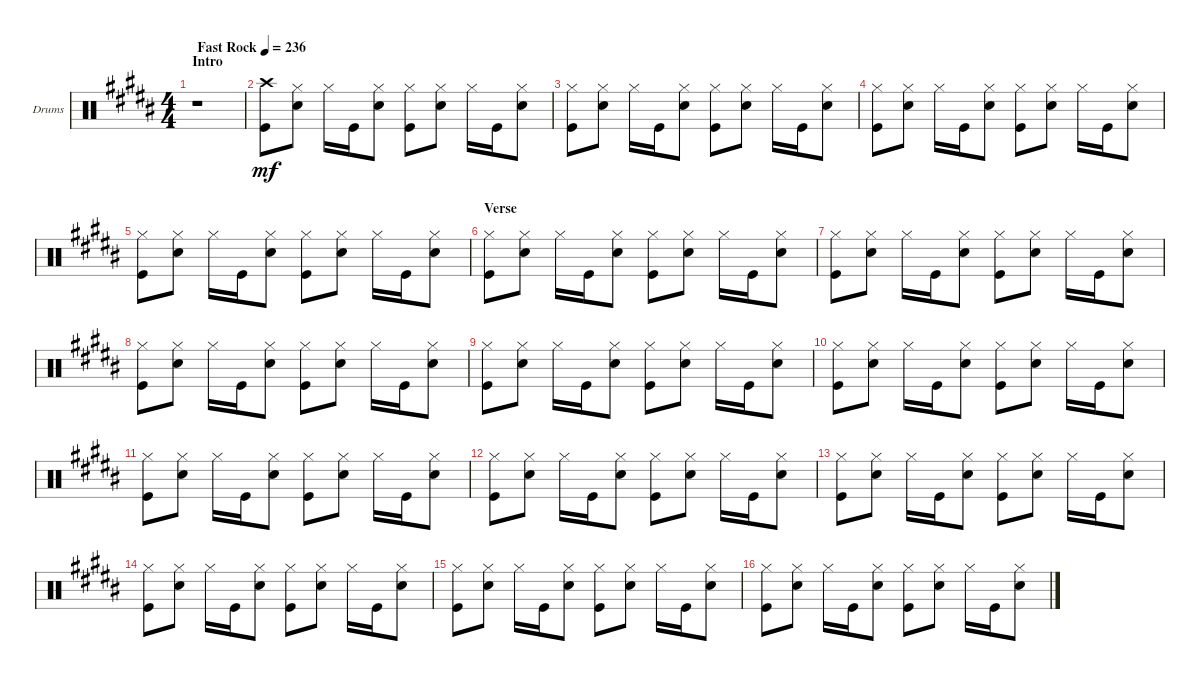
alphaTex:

\defaultSystemsLayout 4
\bracketExtendMode groupsimilarinstruments
\firstSystemTrackNameOrientation horizontal
\otherSystemsTrackNameOrientation horizontal
\track ("Drums" "Drums") {instrument percussion}
\staff {score}
\articulation defaults
\ts (4 4)
\section ("" "Intro")
\tempo (236 "Fast Rock")
\clef neutral
\ks b
r.1{dy mf} |
("Kick (hit)" "Crash high (hit)").8 ("Hi-Hat (closed)" "Snare (hit) 2").8 "Hi-Hat (closed)".16 "Kick (hit)".16 ("Hi-Hat (closed)" "Snare (hit) 2").8 ("Hi-Hat (closed)" "Kick (hit)").8 ("Hi-Hat (closed)" "Snare (hit) 2").8 "Hi-Hat (closed)".16 "Kick (hit)".16 ("Hi-Hat (closed)" "Snare (hit) 2").8 |
("Hi-Hat (closed)" "Kick (hit)").8 ("Hi-Hat (closed)" "Snare (hit) 2").8 "Hi-Hat (closed)".16 "Kick (hit)".16 ("Hi-Hat (closed)" "Snare (hit) 2").8 ("Hi-Hat (closed)" "Kick (hit)").8 ("Hi-Hat (closed)" "Snare (hit) 2").8 "Hi-Hat (closed)".16 "Kick (hit)".16 ("Hi-Hat (closed)" "Snare (hit) 2").8 |
("Hi-Hat (closed)" "Kick (hit)").8 ("Hi-Hat (closed)" "Snare (hit) 2").8 "Hi-Hat (closed)".16 "Kick (hit)".16 ("Hi-Hat (closed)" "Snare (hit) 2").8 ("Hi-Hat (closed)" "Kick (hit)").8 ("Hi-Hat (closed)" "Snare (hit) 2").8 "Hi-Hat (closed)".16 "Kick (hit)".16 ("Hi-Hat (closed)" "Snare (hit) 2").8 |
("Hi-Hat (closed)" "Kick (hit)").8 ("Hi-Hat (closed)" "Snare (hit) 2").8 "Hi-Hat (closed)".16 "Kick (hit)".16 ("Hi-Hat (closed)" "Snare (hit) 2").8 ("Hi-Hat (closed)" "Kick (hit)").8 ("Hi-Hat (closed)" "Snare (hit) 2").8 "Hi-Hat (closed)".16 "Kick (hit)".16 ("Hi-Hat (closed)" "Snare (hit) 2").8 |
\section ("" "Verse")
("Kick (hit)" "Hi-Hat (closed)").8 ("Hi-Hat (closed)" "Snare (hit) 2").8 "Hi-Hat (closed)".16 "Kick (hit)".16 ("Hi-Hat (closed)" "Snare (hit) 2").8 ("Hi-Hat (closed)" "Kick (hit)").8 ("Hi-Hat (closed)" "Snare (hit) 2").8 "Hi-Hat (closed)".16 "Kick (hit)".16 ("Hi-Hat (closed)" "Snare (hit) 2").8 |
("Hi-Hat (closed)" "Kick (hit)").8 ("Hi-Hat (closed)" "Snare (hit) 2").8 "Hi-Hat (closed)".16 "Kick (hit)".16 ("Hi-Hat (closed)" "Snare (hit) 2").8 ("Hi-Hat (closed)" "Kick (hit)").8 ("Hi-Hat (closed)" "Snare (hit) 2").8 "Hi-Hat (closed)".16 "Kick (hit)".16 ("Hi-Hat (closed)" "Snare (hit) 2").8 |
("Hi-Hat (closed)" "Kick (hit)").8 ("Hi-Hat (closed)" "Snare (hit) 2").8 "Hi-Hat (closed)".16 "Kick (hit)".16 ("Hi-Hat (closed)" "Snare (hit) 2").8 ("Hi-Hat (closed)" "Kick (hit)").8 ("Hi-Hat (closed)" "Snare (hit) 2").8 "Hi-Hat (closed)".16 "Kick (hit)".16 ("Hi-Hat (closed)" "Snare (hit) 2").8 |
("Hi-Hat (closed)" "Kick (hit)").8 ("Hi-Hat (closed)" "Snare (hit) 2").8 "Hi-Hat (closed)".16 "Kick (hit)".16 ("Hi-Hat (closed)" "Snare (hit) 2").8 ("Hi-Hat (closed)" "Kick (hit)").8 ("Hi-Hat (closed)" "Snare (hit) 2").8 "Hi-Hat (closed)".16 "Kick (hit)".16 ("Hi-Hat (closed)" "Snare (hit) 2").8 |
("Kick (hit)" "Hi-Hat (closed)").8 ("Hi-Hat (closed)" "Snare (hit) 2").8 "Hi-Hat (closed)".16 "Kick (hit)".16 ("Hi-Hat (closed)" "Snare (hit) 2").8 ("Hi-Hat (closed)" "Kick (hit)").8 ("Hi-Hat (closed)" "Snare (hit) 2").8 "Hi-Hat (closed)".16 "Kick (hit)".16 ("Hi-Hat (closed)" "Snare (hit) 2").8 |
("Hi-Hat (closed)" "Kick (hit)").8 ("Hi-Hat (closed)" "Snare (hit) 2").8 "Hi-Hat (closed)".16 "Kick (hit)".16 ("Hi-Hat (closed)" "Snare (hit) 2").8 ("Hi-Hat (closed)" "Kick (hit)").8 ("Hi-Hat (closed)" "Snare (hit) 2").8 "Hi-Hat (closed)".16 "Kick (hit)".16 ("Hi-Hat (closed)" "Snare (hit) 2").8 |
("Hi-Hat (closed)" "Kick (hit)").8 ("Hi-Hat (closed)" "Snare (hit) 2").8 "Hi-Hat (closed)".16 "Kick (hit)".16 ("Hi-Hat (closed)" "Snare (hit) 2").8 ("Hi-Hat (closed)" "Kick (hit)").8 ("Hi-Hat (closed)" "Snare (hit) 2").8 "Hi-Hat (closed)".16 "Kick (hit)".16 ("Hi-Hat (closed)" "Snare (hit) 2").8 |
("Hi-Hat (closed)" "Kick (hit)").8 ("Hi-Hat (closed)" "Snare (hit) 2").8 "Hi-Hat (closed)".16 "Kick (hit)".16 ("Hi-Hat (closed)" "Snare (hit) 2").8 ("Hi-Hat (closed)" "Kick (hit)").8 ("Hi-Hat (closed)" "Snare (hit) 2").8 "Hi-Hat (closed)".16 "Kick (hit)".16 ("Hi-Hat (closed)" "Snare (hit) 2").8 |
("Kick (hit)" "Hi-Hat (closed)").8 ("Hi-Hat (closed)" "Snare (hit) 2").8 "Hi-Hat (closed)".16 "Kick (hit)".16 ("Hi-Hat (closed)" "Snare (hit) 2").8 ("Hi-Hat (closed)" "Kick (hit)").8 ("Hi-Hat (closed)" "Snare (hit) 2").8 "Hi-Hat (closed)".16 "Kick (hit)".16 ("Hi-Hat (closed)" "Snare (hit) 2").8 |
("Hi-Hat (closed)" "Kick (hit)").8 ("Hi-Hat (closed)" "Snare (hit) 2").8 "Hi-Hat (closed)".16 "Kick (hit)".16 ("Hi-Hat (closed)" "Snare (hit) 2").8 ("Hi-Hat (closed)" "Kick (hit)").8 ("Hi-Hat (closed)" "Snare (hit) 2").8 "Hi-Hat (closed)".16 "Kick (hit)".16 ("Hi-Hat (closed)" "Snare (hit) 2").8 |
("Hi-Hat (closed)" "Kick (hit)").8 ("Hi-Hat (closed)" "Snare (hit) 2").8 "Hi-Hat (closed)".16 "Kick (hit)".16 ("Hi-Hat (closed)" "Snare (hit) 2").8 ("Hi-Hat (closed)" "Kick (hit)").8 ("Hi-Hat (closed)" "Snare (hit) 2").8 "Hi-Hat (closed)".16 "Kick (hit)".16 ("Hi-Hat (closed)" "Snare (hit) 2").8
